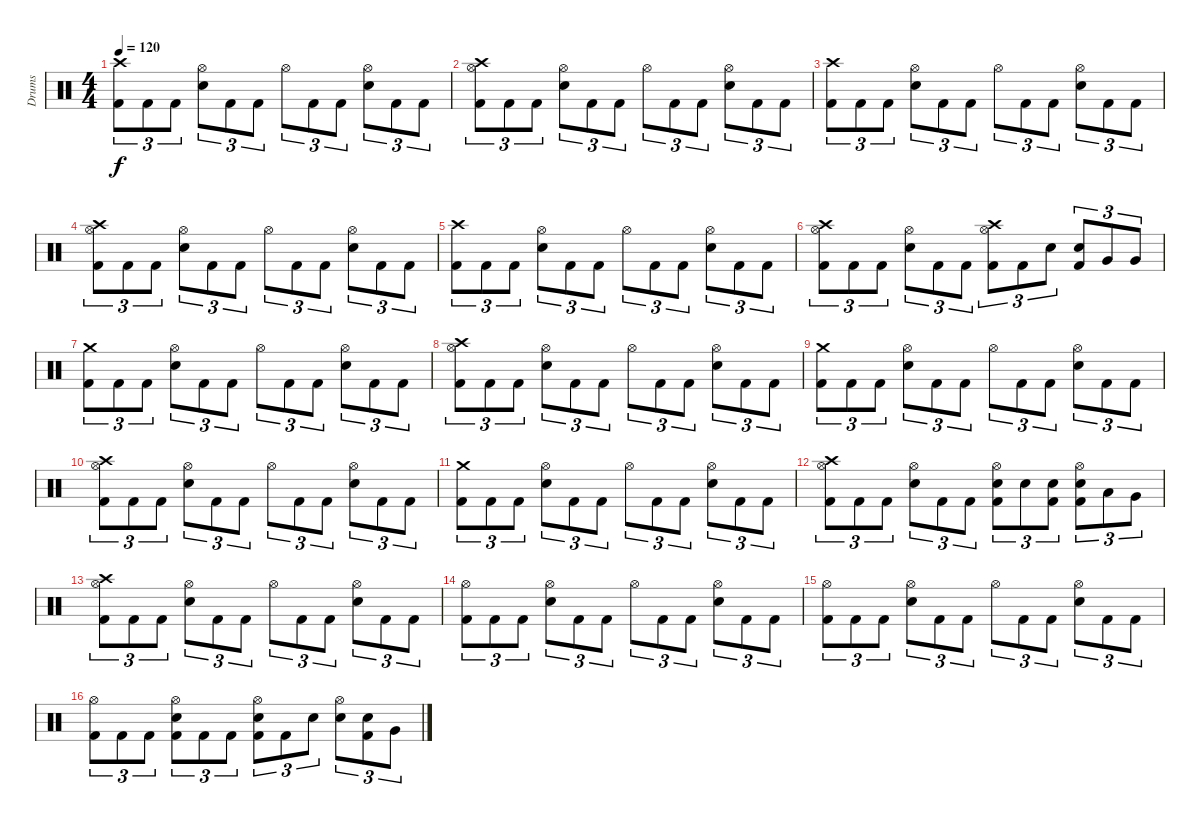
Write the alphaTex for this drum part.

\track ("Drums" "Drums") {instrument percussion}
\staff {score}
\articulation defaults
\ts (4 4)
\tempo 120
\clef neutral
\ks c
("Kick (hit) 2" "Crash high (hit)").8{tu (3 2) dy f} "Kick (hit) 2".8{tu (3 2)} "Kick (hit) 2".8{tu (3 2)} ("Snare (hit) 2" "Hi-Hat (open)").8{tu (3 2)} "Kick (hit) 2".8{tu (3 2)} "Kick (hit) 2".8{tu (3 2)} "Hi-Hat (open)".8{tu (3 2)} "Kick (hit) 2".8{tu (3 2)} "Kick (hit) 2".8{tu (3 2)} ("Snare (hit) 2" "Hi-Hat (open)").8{tu (3 2)} "Kick (hit) 2".8{tu (3 2)} "Kick (hit) 2".8{tu (3 2)} |
("Kick (hit) 2" "Hi-Hat (open)" "Crash high (hit)").8{tu (3 2)} "Kick (hit) 2".8{tu (3 2)} "Kick (hit) 2".8{tu (3 2)} ("Snare (hit) 2" "Hi-Hat (open)").8{tu (3 2)} "Kick (hit) 2".8{tu (3 2)} "Kick (hit) 2".8{tu (3 2)} "Hi-Hat (open)".8{tu (3 2)} "Kick (hit) 2".8{tu (3 2)} "Kick (hit) 2".8{tu (3 2)} ("Snare (hit) 2" "Hi-Hat (open)").8{tu (3 2)} "Kick (hit) 2".8{tu (3 2)} "Kick (hit) 2".8{tu (3 2)} |
("Kick (hit) 2" "Crash high (hit)").8{tu (3 2)} "Kick (hit) 2".8{tu (3 2)} "Kick (hit) 2".8{tu (3 2)} ("Snare (hit) 2" "Hi-Hat (open)").8{tu (3 2)} "Kick (hit) 2".8{tu (3 2)} "Kick (hit) 2".8{tu (3 2)} "Hi-Hat (open)".8{tu (3 2)} "Kick (hit) 2".8{tu (3 2)} "Kick (hit) 2".8{tu (3 2)} ("Snare (hit) 2" "Hi-Hat (open)").8{tu (3 2)} "Kick (hit) 2".8{tu (3 2)} "Kick (hit) 2".8{tu (3 2)} |
("Kick (hit) 2" "Hi-Hat (open)" "Crash high (hit)").8{tu (3 2)} "Kick (hit) 2".8{tu (3 2)} "Kick (hit) 2".8{tu (3 2)} ("Snare (hit) 2" "Hi-Hat (open)").8{tu (3 2)} "Kick (hit) 2".8{tu (3 2)} "Kick (hit) 2".8{tu (3 2)} "Hi-Hat (open)".8{tu (3 2)} "Kick (hit) 2".8{tu (3 2)} "Kick (hit) 2".8{tu (3 2)} ("Snare (hit) 2" "Hi-Hat (open)").8{tu (3 2)} "Kick (hit) 2".8{tu (3 2)} "Kick (hit) 2".8{tu (3 2)} |
("Kick (hit) 2" "Crash high (hit)").8{tu (3 2)} "Kick (hit) 2".8{tu (3 2)} "Kick (hit) 2".8{tu (3 2)} ("Snare (hit) 2" "Hi-Hat (open)").8{tu (3 2)} "Kick (hit) 2".8{tu (3 2)} "Kick (hit) 2".8{tu (3 2)} "Hi-Hat (open)".8{tu (3 2)} "Kick (hit) 2".8{tu (3 2)} "Kick (hit) 2".8{tu (3 2)} ("Snare (hit) 2" "Hi-Hat (open)").8{tu (3 2)} "Kick (hit) 2".8{tu (3 2)} "Kick (hit) 2".8{tu (3 2)} |
("Kick (hit) 2" "Hi-Hat (open)" "Crash high (hit)").8{tu (3 2)} "Kick (hit) 2".8{tu (3 2)} "Kick (hit) 2".8{tu (3 2)} ("Snare (hit) 2" "Hi-Hat (open)").8{tu (3 2)} "Kick (hit) 2".8{tu (3 2)} "Kick (hit) 2".8{tu (3 2)} ("Kick (hit) 2" "Hi-Hat (open)" "Crash high (hit)").8{tu (3 2)} "Kick (hit) 2".8{tu (3 2)} "Snare (hit) 2".8{tu (3 2)} ("Kick (hit) 2" "Snare (hit) 2").8{tu (3 2)} "Very Low Tom (hit)".8{tu (3 2)} "Very Low Tom (hit)".8{tu (3 2)} |
("Kick (hit) 2" "Crash medium (hit)").8{tu (3 2)} "Kick (hit) 2".8{tu (3 2)} "Kick (hit) 2".8{tu (3 2)} ("Snare (hit) 2" "Hi-Hat (open)").8{tu (3 2)} "Kick (hit) 2".8{tu (3 2)} "Kick (hit) 2".8{tu (3 2)} "Hi-Hat (open)".8{tu (3 2)} "Kick (hit) 2".8{tu (3 2)} "Kick (hit) 2".8{tu (3 2)} ("Snare (hit) 2" "Hi-Hat (open)").8{tu (3 2)} "Kick (hit) 2".8{tu (3 2)} "Kick (hit) 2".8{tu (3 2)} |
("Kick (hit) 2" "Hi-Hat (open)" "Crash high (hit)").8{tu (3 2)} "Kick (hit) 2".8{tu (3 2)} "Kick (hit) 2".8{tu (3 2)} ("Snare (hit) 2" "Hi-Hat (open)").8{tu (3 2)} "Kick (hit) 2".8{tu (3 2)} "Kick (hit) 2".8{tu (3 2)} "Hi-Hat (open)".8{tu (3 2)} "Kick (hit) 2".8{tu (3 2)} "Kick (hit) 2".8{tu (3 2)} ("Snare (hit) 2" "Hi-Hat (open)").8{tu (3 2)} "Kick (hit) 2".8{tu (3 2)} "Kick (hit) 2".8{tu (3 2)} |
("Kick (hit) 2" "Crash medium (hit)").8{tu (3 2)} "Kick (hit) 2".8{tu (3 2)} "Kick (hit) 2".8{tu (3 2)} ("Snare (hit) 2" "Hi-Hat (open)").8{tu (3 2)} "Kick (hit) 2".8{tu (3 2)} "Kick (hit) 2".8{tu (3 2)} "Hi-Hat (open)".8{tu (3 2)} "Kick (hit) 2".8{tu (3 2)} "Kick (hit) 2".8{tu (3 2)} ("Snare (hit) 2" "Hi-Hat (open)").8{tu (3 2)} "Kick (hit) 2".8{tu (3 2)} "Kick (hit) 2".8{tu (3 2)} |
("Kick (hit) 2" "Hi-Hat (open)" "Crash high (hit)").8{tu (3 2)} "Kick (hit) 2".8{tu (3 2)} "Kick (hit) 2".8{tu (3 2)} ("Snare (hit) 2" "Hi-Hat (open)").8{tu (3 2)} "Kick (hit) 2".8{tu (3 2)} "Kick (hit) 2".8{tu (3 2)} "Hi-Hat (open)".8{tu (3 2)} "Kick (hit) 2".8{tu (3 2)} "Kick (hit) 2".8{tu (3 2)} ("Snare (hit) 2" "Hi-Hat (open)").8{tu (3 2)} "Kick (hit) 2".8{tu (3 2)} "Kick (hit) 2".8{tu (3 2)} |
("Kick (hit) 2" "Crash medium (hit)").8{tu (3 2)} "Kick (hit) 2".8{tu (3 2)} "Kick (hit) 2".8{tu (3 2)} ("Snare (hit) 2" "Hi-Hat (open)").8{tu (3 2)} "Kick (hit) 2".8{tu (3 2)} "Kick (hit) 2".8{tu (3 2)} "Hi-Hat (open)".8{tu (3 2)} "Kick (hit) 2".8{tu (3 2)} "Kick (hit) 2".8{tu (3 2)} ("Snare (hit) 2" "Hi-Hat (open)").8{tu (3 2)} "Kick (hit) 2".8{tu (3 2)} "Kick (hit) 2".8{tu (3 2)} |
("Kick (hit) 2" "Hi-Hat (open)" "Crash high (hit)").8{tu (3 2)} "Kick (hit) 2".8{tu (3 2)} "Kick (hit) 2".8{tu (3 2)} ("Snare (hit) 2" "Hi-Hat (open)").8{tu (3 2)} "Kick (hit) 2".8{tu (3 2)} "Kick (hit) 2".8{tu (3 2)} ("Kick (hit) 2" "Snare (hit) 2" "Hi-Hat (open)").8{tu (3 2)} "Snare (hit) 2".8{tu (3 2)} ("Kick (hit) 2" "Snare (hit) 2").8{tu (3 2)} ("Kick (hit) 2" "Snare (hit) 2" "Hi-Hat (open)").8{tu (3 2)} "Low Tom (hit)".8{tu (3 2)} "Very Low Tom (hit)".8{tu (3 2)} |
("Kick (hit) 2" "Hi-Hat (open)" "Crash high (hit)").8{tu (3 2)} "Kick (hit) 2".8{tu (3 2)} "Kick (hit) 2".8{tu (3 2)} ("Snare (hit) 2" "Hi-Hat (open)").8{tu (3 2)} "Kick (hit) 2".8{tu (3 2)} "Kick (hit) 2".8{tu (3 2)} "Hi-Hat (open)".8{tu (3 2)} "Kick (hit) 2".8{tu (3 2)} "Kick (hit) 2".8{tu (3 2)} ("Snare (hit) 2" "Hi-Hat (open)").8{tu (3 2)} "Kick (hit) 2".8{tu (3 2)} "Kick (hit) 2".8{tu (3 2)} |
("Kick (hit) 2" "Hi-Hat (open)").8{tu (3 2)} "Kick (hit) 2".8{tu (3 2)} "Kick (hit) 2".8{tu (3 2)} ("Snare (hit) 2" "Hi-Hat (open)").8{tu (3 2)} "Kick (hit) 2".8{tu (3 2)} "Kick (hit) 2".8{tu (3 2)} "Hi-Hat (open)".8{tu (3 2)} "Kick (hit) 2".8{tu (3 2)} "Kick (hit) 2".8{tu (3 2)} ("Snare (hit) 2" "Hi-Hat (open)").8{tu (3 2)} "Kick (hit) 2".8{tu (3 2)} "Kick (hit) 2".8{tu (3 2)} |
("Kick (hit) 2" "Hi-Hat (open)").8{tu (3 2)} "Kick (hit) 2".8{tu (3 2)} "Kick (hit) 2".8{tu (3 2)} ("Snare (hit) 2" "Hi-Hat (open)").8{tu (3 2)} "Kick (hit) 2".8{tu (3 2)} "Kick (hit) 2".8{tu (3 2)} "Hi-Hat (open)".8{tu (3 2)} "Kick (hit) 2".8{tu (3 2)} "Kick (hit) 2".8{tu (3 2)} ("Snare (hit) 2" "Hi-Hat (open)").8{tu (3 2)} "Kick (hit) 2".8{tu (3 2)} "Kick (hit) 2".8{tu (3 2)} |
("Kick (hit) 2" "Hi-Hat (open)").8{tu (3 2)} "Kick (hit) 2".8{tu (3 2)} "Kick (hit) 2".8{tu (3 2)} ("Kick (hit) 2" "Snare (hit) 2" "Hi-Hat (open)").8{tu (3 2)} "Kick (hit) 2".8{tu (3 2)} "Kick (hit) 2".8{tu (3 2)} ("Kick (hit) 2" "Snare (hit) 2" "Hi-Hat (open)").8{tu (3 2)} "Kick (hit) 2".8{tu (3 2)} "Snare (hit) 2".8{tu (3 2)} ("Snare (hit) 2" "Hi-Hat (open)").8{tu (3 2)} ("Kick (hit) 2" "Snare (hit) 2").8{tu (3 2)} "Very Low Tom (hit)".8{tu (3 2)}
